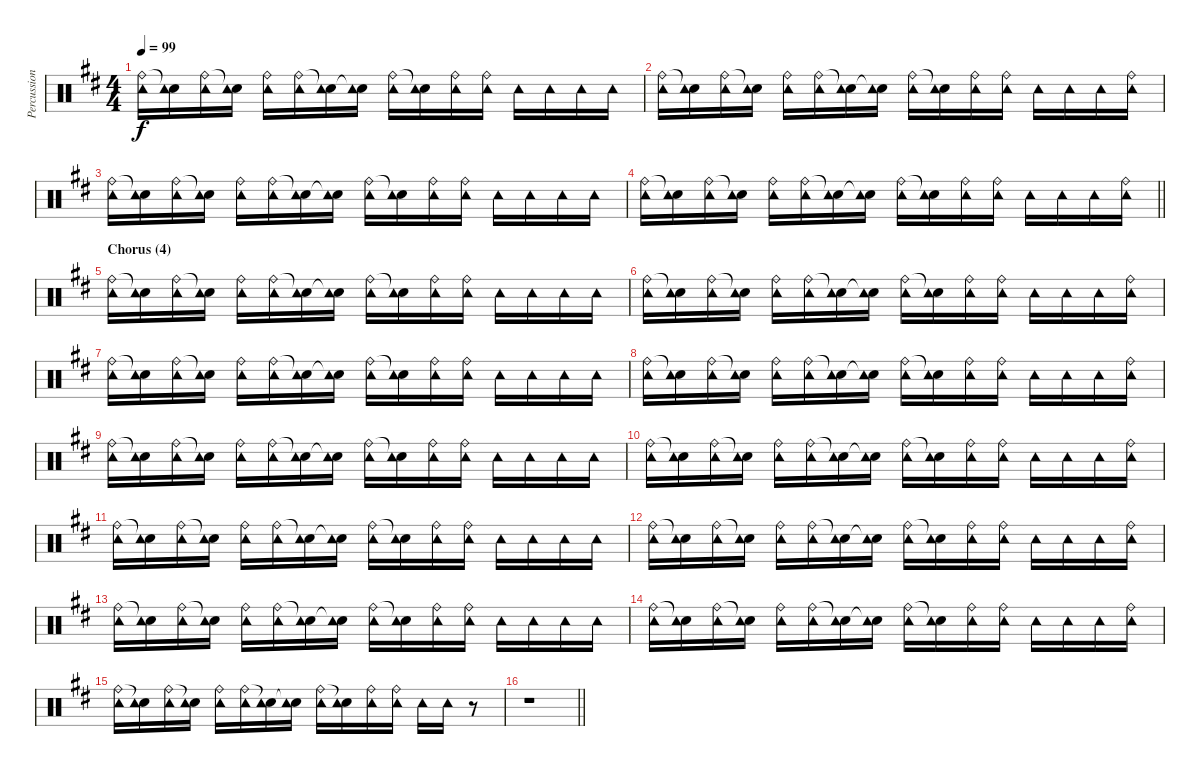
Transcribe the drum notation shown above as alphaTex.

\track ("Percussion" "Percussion") {instrument percussion}
\staff {score}
\articulation defaults
\ts (4 4)
\tempo 99
\clef neutral
\ks d
("Ride (bell)" "Tambourine (hit)").16{dy f} ("Snare (hit)"{t} "Tambourine (hit)").16 ("Ride (bell)" "Tambourine (hit)").16 ("Snare (hit)"{t} "Tambourine (hit)").16 ("Ride (bell)" "Tambourine (hit)").16 ("Ride (bell)" "Tambourine (hit)").16 ("Snare (hit)"{t} "Tambourine (hit)").16 ("Snare (hit)"{t} "Tambourine (hit)").16 ("Ride (bell)" "Tambourine (hit)").16 ("Snare (hit)"{t} "Tambourine (hit)").16 ("Ride (bell)" "Tambourine (hit)").16 ("Ride (bell)" "Tambourine (hit)").16 "Tambourine (hit)".16 "Tambourine (hit)".16 "Tambourine (hit)".16 "Tambourine (hit)".16 |
("Ride (bell)" "Tambourine (hit)").16 ("Snare (hit)"{t} "Tambourine (hit)").16 ("Ride (bell)" "Tambourine (hit)").16 ("Snare (hit)"{t} "Tambourine (hit)").16 ("Ride (bell)" "Tambourine (hit)").16 ("Ride (bell)" "Tambourine (hit)").16 ("Snare (hit)"{t} "Tambourine (hit)").16 ("Snare (hit)"{t} "Tambourine (hit)").16 ("Ride (bell)" "Tambourine (hit)").16 ("Snare (hit)"{t} "Tambourine (hit)").16 ("Ride (bell)" "Tambourine (hit)").16 ("Ride (bell)" "Tambourine (hit)").16 "Tambourine (hit)".16 "Tambourine (hit)".16 "Tambourine (hit)".16 ("Ride (bell)" "Tambourine (hit)").16 |
("Ride (bell)" "Tambourine (hit)").16 ("Snare (hit)"{t} "Tambourine (hit)").16 ("Ride (bell)" "Tambourine (hit)").16 ("Snare (hit)"{t} "Tambourine (hit)").16 ("Ride (bell)" "Tambourine (hit)").16 ("Ride (bell)" "Tambourine (hit)").16 ("Snare (hit)"{t} "Tambourine (hit)").16 ("Snare (hit)"{t} "Tambourine (hit)").16 ("Ride (bell)" "Tambourine (hit)").16 ("Snare (hit)"{t} "Tambourine (hit)").16 ("Ride (bell)" "Tambourine (hit)").16 ("Ride (bell)" "Tambourine (hit)").16 "Tambourine (hit)".16 "Tambourine (hit)".16 "Tambourine (hit)".16 "Tambourine (hit)".16 |
\barLineRight lightlight
("Ride (bell)" "Tambourine (hit)").16 ("Snare (hit)"{t} "Tambourine (hit)").16 ("Ride (bell)" "Tambourine (hit)").16 ("Snare (hit)"{t} "Tambourine (hit)").16 ("Ride (bell)" "Tambourine (hit)").16 ("Ride (bell)" "Tambourine (hit)").16 ("Snare (hit)"{t} "Tambourine (hit)").16 ("Snare (hit)"{t} "Tambourine (hit)").16 ("Ride (bell)" "Tambourine (hit)").16 ("Snare (hit)"{t} "Tambourine (hit)").16 ("Ride (bell)" "Tambourine (hit)").16 ("Ride (bell)" "Tambourine (hit)").16 "Tambourine (hit)".16 "Tambourine (hit)".16 "Tambourine (hit)".16 ("Ride (bell)" "Tambourine (hit)").16 |
\section ("" "Chorus (4)")
("Ride (bell)" "Tambourine (hit)").16 ("Snare (hit)"{t} "Tambourine (hit)").16 ("Ride (bell)" "Tambourine (hit)").16 ("Snare (hit)"{t} "Tambourine (hit)").16 ("Ride (bell)" "Tambourine (hit)").16 ("Ride (bell)" "Tambourine (hit)").16 ("Snare (hit)"{t} "Tambourine (hit)").16 ("Snare (hit)"{t} "Tambourine (hit)").16 ("Ride (bell)" "Tambourine (hit)").16 ("Snare (hit)"{t} "Tambourine (hit)").16 ("Ride (bell)" "Tambourine (hit)").16 ("Ride (bell)" "Tambourine (hit)").16 "Tambourine (hit)".16 "Tambourine (hit)".16 "Tambourine (hit)".16 "Tambourine (hit)".16 |
("Ride (bell)" "Tambourine (hit)").16 ("Snare (hit)"{t} "Tambourine (hit)").16 ("Ride (bell)" "Tambourine (hit)").16 ("Snare (hit)"{t} "Tambourine (hit)").16 ("Ride (bell)" "Tambourine (hit)").16 ("Ride (bell)" "Tambourine (hit)").16 ("Snare (hit)"{t} "Tambourine (hit)").16 ("Snare (hit)"{t} "Tambourine (hit)").16 ("Ride (bell)" "Tambourine (hit)").16 ("Snare (hit)"{t} "Tambourine (hit)").16 ("Ride (bell)" "Tambourine (hit)").16 ("Ride (bell)" "Tambourine (hit)").16 "Tambourine (hit)".16 "Tambourine (hit)".16 "Tambourine (hit)".16 ("Ride (bell)" "Tambourine (hit)").16 |
("Ride (bell)" "Tambourine (hit)").16 ("Snare (hit)"{t} "Tambourine (hit)").16 ("Ride (bell)" "Tambourine (hit)").16 ("Snare (hit)"{t} "Tambourine (hit)").16 ("Ride (bell)" "Tambourine (hit)").16 ("Ride (bell)" "Tambourine (hit)").16 ("Snare (hit)"{t} "Tambourine (hit)").16 ("Snare (hit)"{t} "Tambourine (hit)").16 ("Ride (bell)" "Tambourine (hit)").16 ("Snare (hit)"{t} "Tambourine (hit)").16 ("Ride (bell)" "Tambourine (hit)").16 ("Ride (bell)" "Tambourine (hit)").16 "Tambourine (hit)".16 "Tambourine (hit)".16 "Tambourine (hit)".16 "Tambourine (hit)".16 |
("Ride (bell)" "Tambourine (hit)").16 ("Snare (hit)"{t} "Tambourine (hit)").16 ("Ride (bell)" "Tambourine (hit)").16 ("Snare (hit)"{t} "Tambourine (hit)").16 ("Ride (bell)" "Tambourine (hit)").16 ("Ride (bell)" "Tambourine (hit)").16 ("Snare (hit)"{t} "Tambourine (hit)").16 ("Snare (hit)"{t} "Tambourine (hit)").16 ("Ride (bell)" "Tambourine (hit)").16 ("Snare (hit)"{t} "Tambourine (hit)").16 ("Ride (bell)" "Tambourine (hit)").16 ("Ride (bell)" "Tambourine (hit)").16 "Tambourine (hit)".16 "Tambourine (hit)".16 "Tambourine (hit)".16 ("Ride (bell)" "Tambourine (hit)").16 |
("Ride (bell)" "Tambourine (hit)").16 ("Snare (hit)"{t} "Tambourine (hit)").16 ("Ride (bell)" "Tambourine (hit)").16 ("Snare (hit)"{t} "Tambourine (hit)").16 ("Ride (bell)" "Tambourine (hit)").16 ("Ride (bell)" "Tambourine (hit)").16 ("Snare (hit)"{t} "Tambourine (hit)").16 ("Snare (hit)"{t} "Tambourine (hit)").16 ("Ride (bell)" "Tambourine (hit)").16 ("Snare (hit)"{t} "Tambourine (hit)").16 ("Ride (bell)" "Tambourine (hit)").16 ("Ride (bell)" "Tambourine (hit)").16 "Tambourine (hit)".16 "Tambourine (hit)".16 "Tambourine (hit)".16 "Tambourine (hit)".16 |
("Ride (bell)" "Tambourine (hit)").16 ("Snare (hit)"{t} "Tambourine (hit)").16 ("Ride (bell)" "Tambourine (hit)").16 ("Snare (hit)"{t} "Tambourine (hit)").16 ("Ride (bell)" "Tambourine (hit)").16 ("Ride (bell)" "Tambourine (hit)").16 ("Snare (hit)"{t} "Tambourine (hit)").16 ("Snare (hit)"{t} "Tambourine (hit)").16 ("Ride (bell)" "Tambourine (hit)").16 ("Snare (hit)"{t} "Tambourine (hit)").16 ("Ride (bell)" "Tambourine (hit)").16 ("Ride (bell)" "Tambourine (hit)").16 "Tambourine (hit)".16 "Tambourine (hit)".16 "Tambourine (hit)".16 ("Ride (bell)" "Tambourine (hit)").16 |
("Ride (bell)" "Tambourine (hit)").16 ("Snare (hit)"{t} "Tambourine (hit)").16 ("Ride (bell)" "Tambourine (hit)").16 ("Snare (hit)"{t} "Tambourine (hit)").16 ("Ride (bell)" "Tambourine (hit)").16 ("Ride (bell)" "Tambourine (hit)").16 ("Snare (hit)"{t} "Tambourine (hit)").16 ("Snare (hit)"{t} "Tambourine (hit)").16 ("Ride (bell)" "Tambourine (hit)").16 ("Snare (hit)"{t} "Tambourine (hit)").16 ("Ride (bell)" "Tambourine (hit)").16 ("Ride (bell)" "Tambourine (hit)").16 "Tambourine (hit)".16 "Tambourine (hit)".16 "Tambourine (hit)".16 "Tambourine (hit)".16 |
("Ride (bell)" "Tambourine (hit)").16 ("Snare (hit)"{t} "Tambourine (hit)").16 ("Ride (bell)" "Tambourine (hit)").16 ("Snare (hit)"{t} "Tambourine (hit)").16 ("Ride (bell)" "Tambourine (hit)").16 ("Ride (bell)" "Tambourine (hit)").16 ("Snare (hit)"{t} "Tambourine (hit)").16 ("Snare (hit)"{t} "Tambourine (hit)").16 ("Ride (bell)" "Tambourine (hit)").16 ("Snare (hit)"{t} "Tambourine (hit)").16 ("Ride (bell)" "Tambourine (hit)").16 ("Ride (bell)" "Tambourine (hit)").16 "Tambourine (hit)".16 "Tambourine (hit)".16 "Tambourine (hit)".16 ("Ride (bell)" "Tambourine (hit)").16 |
("Ride (bell)" "Tambourine (hit)").16 ("Snare (hit)"{t} "Tambourine (hit)").16 ("Ride (bell)" "Tambourine (hit)").16 ("Snare (hit)"{t} "Tambourine (hit)").16 ("Ride (bell)" "Tambourine (hit)").16 ("Ride (bell)" "Tambourine (hit)").16 ("Snare (hit)"{t} "Tambourine (hit)").16 ("Snare (hit)"{t} "Tambourine (hit)").16 ("Ride (bell)" "Tambourine (hit)").16 ("Snare (hit)"{t} "Tambourine (hit)").16 ("Ride (bell)" "Tambourine (hit)").16 ("Ride (bell)" "Tambourine (hit)").16 "Tambourine (hit)".16 "Tambourine (hit)".16 "Tambourine (hit)".16 "Tambourine (hit)".16 |
("Ride (bell)" "Tambourine (hit)").16 ("Snare (hit)"{t} "Tambourine (hit)").16 ("Ride (bell)" "Tambourine (hit)").16 ("Snare (hit)"{t} "Tambourine (hit)").16 ("Ride (bell)" "Tambourine (hit)").16 ("Ride (bell)" "Tambourine (hit)").16 ("Snare (hit)"{t} "Tambourine (hit)").16 ("Snare (hit)"{t} "Tambourine (hit)").16 ("Ride (bell)" "Tambourine (hit)").16 ("Snare (hit)"{t} "Tambourine (hit)").16 ("Ride (bell)" "Tambourine (hit)").16 ("Ride (bell)" "Tambourine (hit)").16 "Tambourine (hit)".16 "Tambourine (hit)".16 "Tambourine (hit)".16 ("Ride (bell)" "Tambourine (hit)").16 |
("Ride (bell)" "Tambourine (hit)").16 ("Snare (hit)"{t} "Tambourine (hit)").16 ("Ride (bell)" "Tambourine (hit)").16 ("Snare (hit)"{t} "Tambourine (hit)").16 ("Ride (bell)" "Tambourine (hit)").16 ("Ride (bell)" "Tambourine (hit)").16 ("Snare (hit)"{t} "Tambourine (hit)").16 ("Snare (hit)"{t} "Tambourine (hit)").16 ("Ride (bell)" "Tambourine (hit)").16 ("Snare (hit)"{t} "Tambourine (hit)").16 ("Ride (bell)" "Tambourine (hit)").16 ("Ride (bell)" "Tambourine (hit)").16 "Tambourine (hit)".16 "Tambourine (hit)".16 r.8 |
\barLineRight lightlight
r.1
